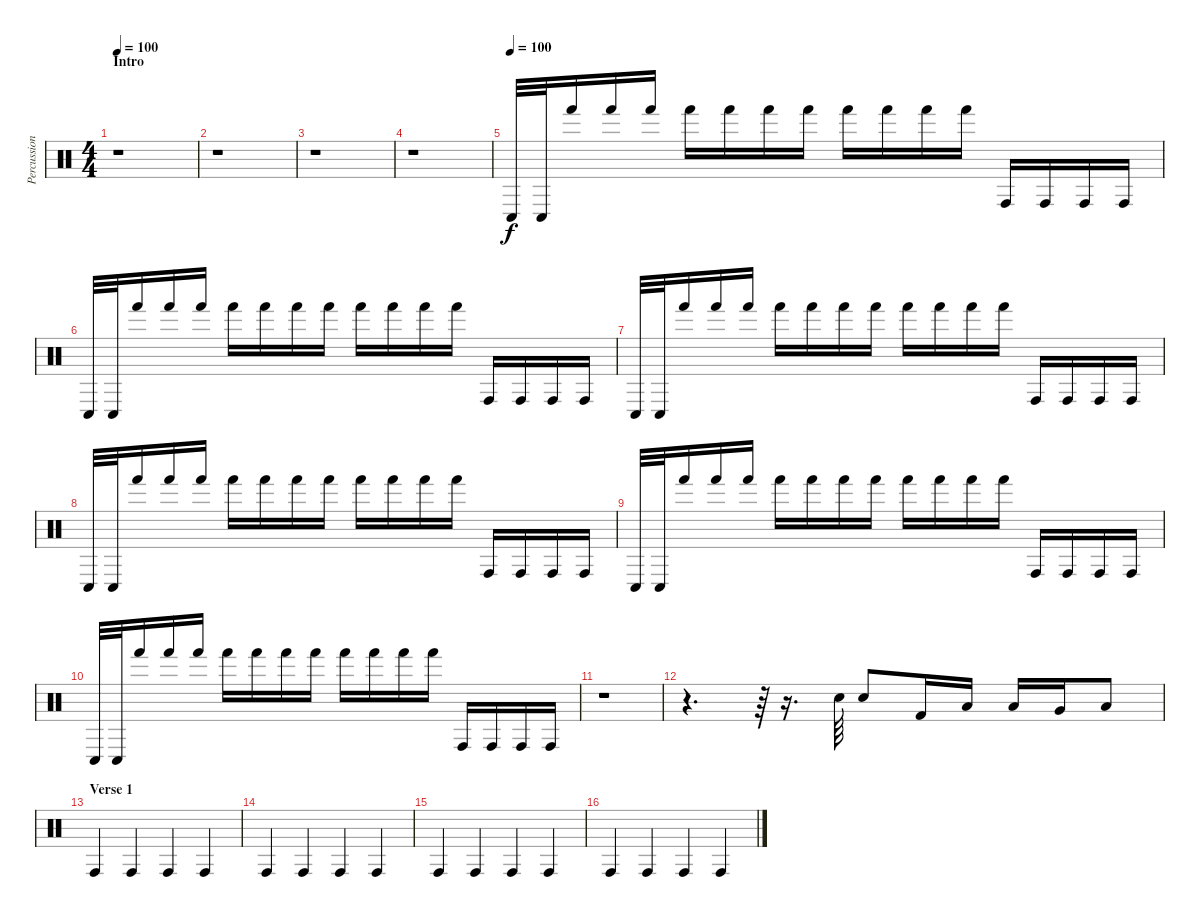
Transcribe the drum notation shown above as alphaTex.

\track ("Percussions additionnelles" "Percussion") {instrument percussion}
\staff {score}
\articulation defaults
\ts (4 4)
\section ("" "Intro")
\tempo 100
\clef neutral
\ks c
r.1{dy f} |
r.1 |
r.1 |
r.1 |
\tempo (100)
"Conga low (hit)".32 "Conga low (hit)".32 "Hand (hit)".16 "Hand (hit)".16 "Hand (hit)".16 "Hand (hit)".16 "Hand (hit)".16 "Hand (hit)".16 "Hand (hit)".16 "Hand (hit)".16 "Hand (hit)".16 "Hand (hit)".16 "Hand (hit)".16 "Conga high (hit)".16 "Conga high (hit)".16 "Conga high (hit)".16 "Conga high (hit)".16 |
"Conga low (hit)".32 "Conga low (hit)".32 "Hand (hit)".16 "Hand (hit)".16 "Hand (hit)".16 "Hand (hit)".16 "Hand (hit)".16 "Hand (hit)".16 "Hand (hit)".16 "Hand (hit)".16 "Hand (hit)".16 "Hand (hit)".16 "Hand (hit)".16 "Conga high (hit)".16 "Conga high (hit)".16 "Conga high (hit)".16 "Conga high (hit)".16 |
"Conga low (hit)".32 "Conga low (hit)".32 "Hand (hit)".16 "Hand (hit)".16 "Hand (hit)".16 "Hand (hit)".16 "Hand (hit)".16 "Hand (hit)".16 "Hand (hit)".16 "Hand (hit)".16 "Hand (hit)".16 "Hand (hit)".16 "Hand (hit)".16 "Conga high (hit)".16 "Conga high (hit)".16 "Conga high (hit)".16 "Conga high (hit)".16 |
"Conga low (hit)".32 "Conga low (hit)".32 "Hand (hit)".16 "Hand (hit)".16 "Hand (hit)".16 "Hand (hit)".16 "Hand (hit)".16 "Hand (hit)".16 "Hand (hit)".16 "Hand (hit)".16 "Hand (hit)".16 "Hand (hit)".16 "Hand (hit)".16 "Conga high (hit)".16 "Conga high (hit)".16 "Conga high (hit)".16 "Conga high (hit)".16 |
"Conga low (hit)".32 "Conga low (hit)".32 "Hand (hit)".16 "Hand (hit)".16 "Hand (hit)".16 "Hand (hit)".16 "Hand (hit)".16 "Hand (hit)".16 "Hand (hit)".16 "Hand (hit)".16 "Hand (hit)".16 "Hand (hit)".16 "Hand (hit)".16 "Conga high (hit)".16 "Conga high (hit)".16 "Conga high (hit)".16 "Conga high (hit)".16 |
"Conga low (hit)".32 "Conga low (hit)".32 "Hand (hit)".16 "Hand (hit)".16 "Hand (hit)".16 "Hand (hit)".16 "Hand (hit)".16 "Hand (hit)".16 "Hand (hit)".16 "Hand (hit)".16 "Hand (hit)".16 "Hand (hit)".16 "Hand (hit)".16 "Conga high (hit)".16 "Conga high (hit)".16 "Conga high (hit)".16 "Conga high (hit)".16 |
r.1 |
r.4{d} r.64 r.16{d} "Electric Snare (hit)".64 "Snare (hit) 2".8 "Kick (hit) 2".16 "Low Floor Tom (hit)".16 "Low Floor Tom (hit)".16 "Very Low Tom (hit)".16 "Low Tom (hit)".8 |
\section ("" "Verse 1")
"Conga high (hit)".4 "Conga high (hit)".4 "Conga high (hit)".4 "Conga high (hit)".4 |
"Conga high (hit)".4 "Conga high (hit)".4 "Conga high (hit)".4 "Conga high (hit)".4 |
"Conga high (hit)".4 "Conga high (hit)".4 "Conga high (hit)".4 "Conga high (hit)".4 |
"Conga high (hit)".4 "Conga high (hit)".4 "Conga high (hit)".4 "Conga high (hit)".4
